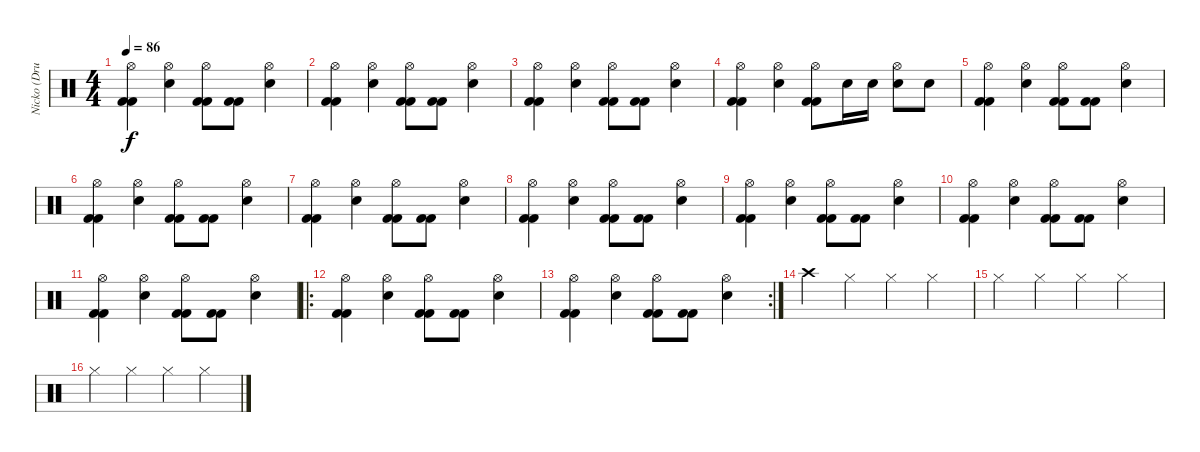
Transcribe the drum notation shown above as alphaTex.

\track ("Nicko (Drums)" "Nicko (Dru") {instrument percussion}
\staff {score}
\articulation defaults
\ts (4 4)
\tempo 86
\clef neutral
\ks c
("Hi-Hat (open)" "Kick (hit) 2" "Kick (hit) 2").4{dy f} ("Hi-Hat (open)" "Snare (hit) 2").4 ("Hi-Hat (open)" "Kick (hit) 2" "Kick (hit) 2").8 ("Kick (hit) 2" "Kick (hit) 2").8 ("Hi-Hat (open)" "Snare (hit) 2").4 |
("Hi-Hat (open)" "Kick (hit) 2" "Kick (hit) 2").4 ("Hi-Hat (open)" "Snare (hit) 2").4 ("Hi-Hat (open)" "Kick (hit) 2" "Kick (hit) 2").8 ("Kick (hit) 2" "Kick (hit) 2").8 ("Hi-Hat (open)" "Snare (hit) 2").4 |
("Hi-Hat (open)" "Kick (hit) 2" "Kick (hit) 2").4 ("Hi-Hat (open)" "Snare (hit) 2").4 ("Hi-Hat (open)" "Kick (hit) 2" "Kick (hit) 2").8 ("Kick (hit) 2" "Kick (hit) 2").8 ("Hi-Hat (open)" "Snare (hit) 2").4 |
("Hi-Hat (open)" "Kick (hit) 2" "Kick (hit) 2").4 ("Hi-Hat (open)" "Snare (hit) 2").4 ("Hi-Hat (open)" "Kick (hit) 2" "Kick (hit) 2").8 "Snare (hit) 2".16 "Snare (hit) 2".16 ("Hi-Hat (open)" "Snare (hit) 2").8 "Snare (hit) 2".8 |
("Hi-Hat (open)" "Kick (hit) 2" "Kick (hit) 2").4 ("Hi-Hat (open)" "Snare (hit) 2").4 ("Hi-Hat (open)" "Kick (hit) 2" "Kick (hit) 2").8 ("Kick (hit) 2" "Kick (hit) 2").8 ("Hi-Hat (open)" "Snare (hit) 2").4 |
("Hi-Hat (open)" "Kick (hit) 2" "Kick (hit) 2").4 ("Hi-Hat (open)" "Snare (hit) 2").4 ("Hi-Hat (open)" "Kick (hit) 2" "Kick (hit) 2").8 ("Kick (hit) 2" "Kick (hit) 2").8 ("Hi-Hat (open)" "Snare (hit) 2").4 |
("Hi-Hat (open)" "Kick (hit) 2" "Kick (hit) 2").4 ("Hi-Hat (open)" "Snare (hit) 2").4 ("Hi-Hat (open)" "Kick (hit) 2" "Kick (hit) 2").8 ("Kick (hit) 2" "Kick (hit) 2").8 ("Hi-Hat (open)" "Snare (hit) 2").4 |
("Hi-Hat (open)" "Kick (hit) 2" "Kick (hit) 2").4 ("Hi-Hat (open)" "Snare (hit) 2").4 ("Hi-Hat (open)" "Kick (hit) 2" "Kick (hit) 2").8 ("Kick (hit) 2" "Kick (hit) 2").8 ("Hi-Hat (open)" "Snare (hit) 2").4 |
("Hi-Hat (open)" "Kick (hit) 2" "Kick (hit) 2").4 ("Hi-Hat (open)" "Snare (hit) 2").4 ("Hi-Hat (open)" "Kick (hit) 2" "Kick (hit) 2").8 ("Kick (hit) 2" "Kick (hit) 2").8 ("Hi-Hat (open)" "Snare (hit) 2").4 |
("Hi-Hat (open)" "Kick (hit) 2" "Kick (hit) 2").4 ("Hi-Hat (open)" "Snare (hit) 2").4 ("Hi-Hat (open)" "Kick (hit) 2" "Kick (hit) 2").8 ("Kick (hit) 2" "Kick (hit) 2").8 ("Hi-Hat (open)" "Snare (hit) 2").4 |
("Hi-Hat (open)" "Kick (hit) 2" "Kick (hit) 2").4 ("Hi-Hat (open)" "Snare (hit) 2").4 ("Hi-Hat (open)" "Kick (hit) 2" "Kick (hit) 2").8 ("Kick (hit) 2" "Kick (hit) 2").8 ("Hi-Hat (open)" "Snare (hit) 2").4 |
\ro
("Hi-Hat (open)" "Kick (hit) 2" "Kick (hit) 2").4 ("Hi-Hat (open)" "Snare (hit) 2").4 ("Hi-Hat (open)" "Kick (hit) 2" "Kick (hit) 2").8 ("Kick (hit) 2" "Kick (hit) 2").8 ("Hi-Hat (open)" "Snare (hit) 2").4 |
\rc 2
("Hi-Hat (open)" "Kick (hit) 2" "Kick (hit) 2").4 ("Hi-Hat (open)" "Snare (hit) 2").4 ("Hi-Hat (open)" "Kick (hit) 2" "Kick (hit) 2").8 ("Kick (hit) 2" "Kick (hit) 2").8 ("Hi-Hat (open)" "Snare (hit) 2").4 |
"Crash high (hit)".4 "Hi-Hat (closed)".4 "Hi-Hat (closed)".4 "Hi-Hat (closed)".4 |
"Hi-Hat (closed)".4 "Hi-Hat (closed)".4 "Hi-Hat (closed)".4 "Hi-Hat (closed)".4 |
"Hi-Hat (closed)".4 "Hi-Hat (closed)".4 "Hi-Hat (closed)".4 "Hi-Hat (closed)".4
